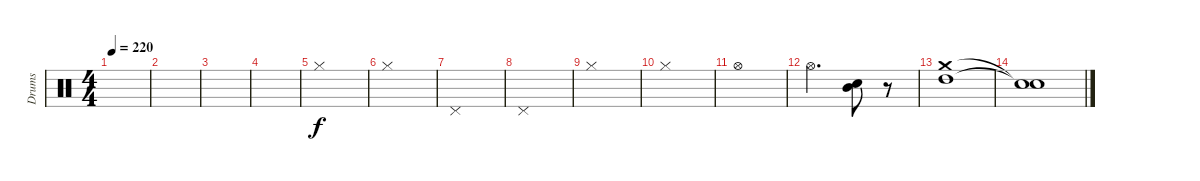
\track ("Drums" "Drums") {instrument percussion}
\staff {score}
\articulation defaults
\ts (4 4)
\tempo 220
\clef neutral
\ks c
|
|
|
|
"Hi-Hat (closed)".1 |
"Hi-Hat (closed)".1 |
"Pedal Hi-Hat (hit)".1 |
"Pedal Hi-Hat (hit)".1 |
"Hi-Hat (closed)".1 |
"Hi-Hat (closed)".1 |
"Hi-Hat (open)".1 |
"Hi-Hat (open)".2{d} ("Electric Snare (hit)" "Mid Tom (hit)").8 r.8 |
("Crash medium (hit)" "High Tom (hit)").1 |
("Snare (hit)"{t} "Snare (hit)"{t}).1
